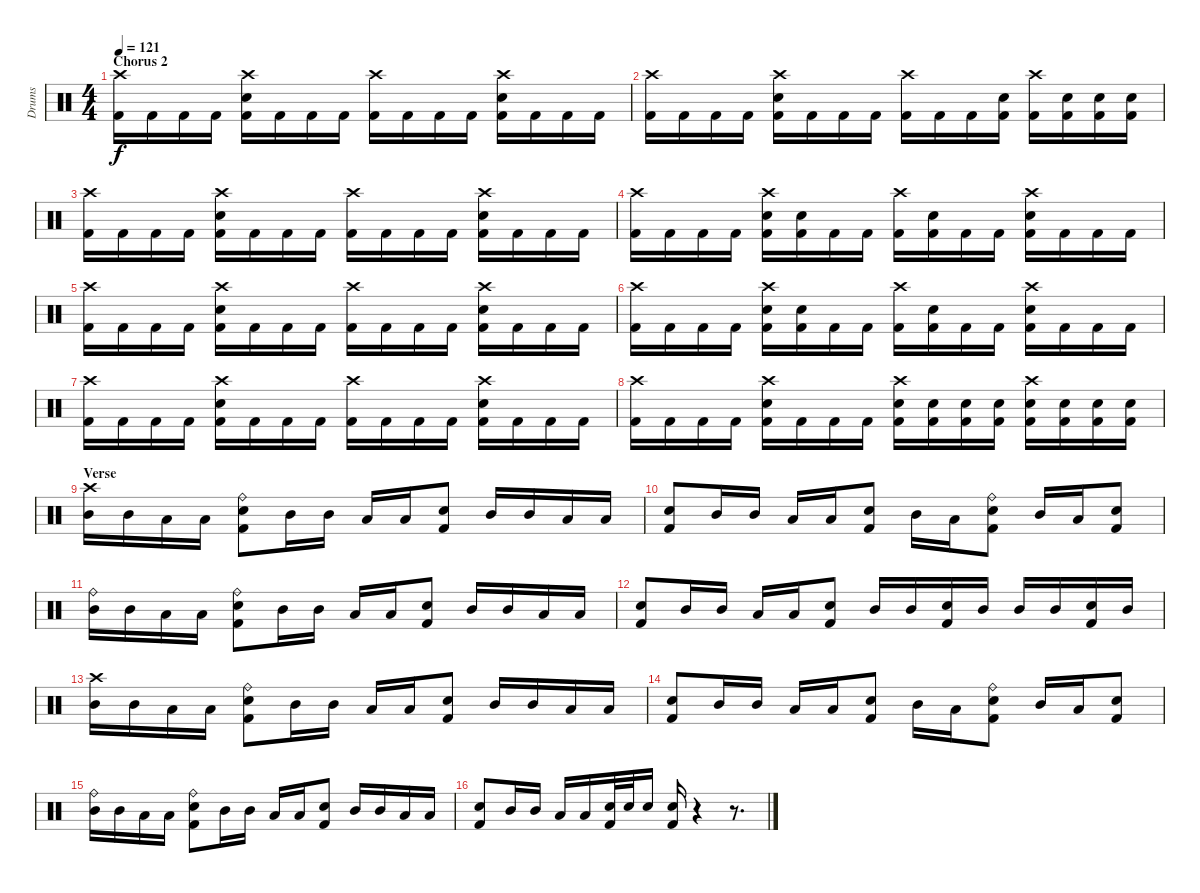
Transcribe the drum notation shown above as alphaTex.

\track ("Drums" "Drums") {instrument percussion}
\staff {score}
\articulation defaults
\ts (4 4)
\section ("" "Chorus 2")
\tempo 121
\clef neutral
\ks c
("Crash high (hit)" "Kick (hit) 2").16{dy f} "Kick (hit) 2".16 "Kick (hit) 2".16 "Kick (hit) 2".16 ("Crash high (hit)" "Snare (hit) 2" "Kick (hit) 2").16 "Kick (hit) 2".16 "Kick (hit) 2".16 "Kick (hit) 2".16 ("Crash high (hit)" "Kick (hit) 2").16 "Kick (hit) 2".16 "Kick (hit) 2".16 "Kick (hit) 2".16 ("Crash high (hit)" "Snare (hit) 2" "Kick (hit) 2").16 "Kick (hit) 2".16 "Kick (hit) 2".16 "Kick (hit) 2".16 |
("Crash high (hit)" "Kick (hit) 2").16 "Kick (hit) 2".16 "Kick (hit) 2".16 "Kick (hit) 2".16 ("Crash high (hit)" "Snare (hit) 2" "Kick (hit) 2").16 "Kick (hit) 2".16 "Kick (hit) 2".16 "Kick (hit) 2".16 ("Crash high (hit)" "Kick (hit) 2").16 "Kick (hit) 2".16 "Kick (hit) 2".16 ("Snare (hit) 2" "Kick (hit) 2").16 ("Crash high (hit)" "Kick (hit) 2").16 ("Snare (hit) 2" "Kick (hit) 2").16 ("Snare (hit) 2" "Kick (hit) 2").16 ("Snare (hit) 2" "Kick (hit) 2").16 |
("Crash high (hit)" "Kick (hit) 2").16 "Kick (hit) 2".16 "Kick (hit) 2".16 "Kick (hit) 2".16 ("Crash high (hit)" "Snare (hit) 2" "Kick (hit) 2").16 "Kick (hit) 2".16 "Kick (hit) 2".16 "Kick (hit) 2".16 ("Crash high (hit)" "Kick (hit) 2").16 "Kick (hit) 2".16 "Kick (hit) 2".16 "Kick (hit) 2".16 ("Crash high (hit)" "Snare (hit) 2" "Kick (hit) 2").16 "Kick (hit) 2".16 "Kick (hit) 2".16 "Kick (hit) 2".16 |
("Crash high (hit)" "Kick (hit) 2").16 "Kick (hit) 2".16 "Kick (hit) 2".16 "Kick (hit) 2".16 ("Crash high (hit)" "Snare (hit) 2" "Kick (hit) 2").16 ("Snare (hit) 2" "Kick (hit) 2").16 "Kick (hit) 2".16 "Kick (hit) 2".16 ("Crash high (hit)" "Kick (hit) 2").16 ("Snare (hit) 2" "Kick (hit) 2").16 "Kick (hit) 2".16 "Kick (hit) 2".16 ("Crash high (hit)" "Snare (hit) 2" "Kick (hit) 2").16 "Kick (hit) 2".16 "Kick (hit) 2".16 "Kick (hit) 2".16 |
("Crash high (hit)" "Kick (hit) 2").16 "Kick (hit) 2".16 "Kick (hit) 2".16 "Kick (hit) 2".16 ("Crash high (hit)" "Snare (hit) 2" "Kick (hit) 2").16 "Kick (hit) 2".16 "Kick (hit) 2".16 "Kick (hit) 2".16 ("Crash high (hit)" "Kick (hit) 2").16 "Kick (hit) 2".16 "Kick (hit) 2".16 "Kick (hit) 2".16 ("Crash high (hit)" "Snare (hit) 2" "Kick (hit) 2").16 "Kick (hit) 2".16 "Kick (hit) 2".16 "Kick (hit) 2".16 |
("Crash high (hit)" "Kick (hit) 2").16 "Kick (hit) 2".16 "Kick (hit) 2".16 "Kick (hit) 2".16 ("Crash high (hit)" "Snare (hit) 2" "Kick (hit) 2").16 ("Snare (hit) 2" "Kick (hit) 2").16 "Kick (hit) 2".16 "Kick (hit) 2".16 ("Crash high (hit)" "Kick (hit) 2").16 ("Snare (hit) 2" "Kick (hit) 2").16 "Kick (hit) 2".16 "Kick (hit) 2".16 ("Crash high (hit)" "Snare (hit) 2" "Kick (hit) 2").16 "Kick (hit) 2".16 "Kick (hit) 2".16 "Kick (hit) 2".16 |
("Crash high (hit)" "Kick (hit) 2").16 "Kick (hit) 2".16 "Kick (hit) 2".16 "Kick (hit) 2".16 ("Crash high (hit)" "Snare (hit) 2" "Kick (hit) 2").16 "Kick (hit) 2".16 "Kick (hit) 2".16 "Kick (hit) 2".16 ("Crash high (hit)" "Kick (hit) 2").16 "Kick (hit) 2".16 "Kick (hit) 2".16 "Kick (hit) 2".16 ("Crash high (hit)" "Snare (hit) 2" "Kick (hit) 2").16 "Kick (hit) 2".16 "Kick (hit) 2".16 "Kick (hit) 2".16 |
("Crash high (hit)" "Kick (hit) 2").16 "Kick (hit) 2".16 "Kick (hit) 2".16 "Kick (hit) 2".16 ("Crash high (hit)" "Snare (hit) 2" "Kick (hit) 2").16 "Kick (hit) 2".16 "Kick (hit) 2".16 "Kick (hit) 2".16 ("Crash high (hit)" "Snare (hit) 2" "Kick (hit) 2").16 ("Snare (hit) 2" "Kick (hit) 2").16 ("Snare (hit) 2" "Kick (hit) 2").16 ("Snare (hit) 2" "Kick (hit) 2").16 ("Crash high (hit)" "Snare (hit) 2" "Kick (hit) 2").16 ("Snare (hit) 2" "Kick (hit) 2").16 ("Snare (hit) 2" "Kick (hit) 2").16 ("Snare (hit) 2" "Kick (hit) 2").16 |
\section ("" "Verse")
("Crash high (hit)" "Mid Tom (hit)").16 "Mid Tom (hit)".16 "Low Tom (hit)".16 "Low Tom (hit)".16 ("Ride (bell)" "Snare (hit) 2" "Kick (hit) 2").8 "Mid Tom (hit)".16 "Mid Tom (hit)".16 "Low Tom (hit)".16 "Low Tom (hit)".16 ("Snare (hit) 2" "Kick (hit) 2").8 "Mid Tom (hit)".16 "Mid Tom (hit)".16 "Low Tom (hit)".16 "Low Tom (hit)".16 |
("Snare (hit) 2" "Kick (hit) 2").8 "Mid Tom (hit)".16 "Mid Tom (hit)".16 "Low Tom (hit)".16 "Low Tom (hit)".16 ("Snare (hit) 2" "Kick (hit) 2").8 "Mid Tom (hit)".16 "Low Tom (hit)".16 ("Ride (bell)" "Snare (hit) 2" "Kick (hit) 2").8 "Mid Tom (hit)".16 "Low Tom (hit)".16 ("Snare (hit) 2" "Kick (hit) 2").8 |
("Ride (bell)" "Mid Tom (hit)").16 "Mid Tom (hit)".16 "Low Tom (hit)".16 "Low Tom (hit)".16 ("Ride (bell)" "Snare (hit) 2" "Kick (hit) 2").8 "Mid Tom (hit)".16 "Mid Tom (hit)".16 "Low Tom (hit)".16 "Low Tom (hit)".16 ("Snare (hit) 2" "Kick (hit) 2").8 "Mid Tom (hit)".16 "Mid Tom (hit)".16 "Low Tom (hit)".16 "Low Tom (hit)".16 |
("Snare (hit) 2" "Kick (hit) 2").8 "Mid Tom (hit)".16 "Mid Tom (hit)".16 "Low Tom (hit)".16 "Low Tom (hit)".16 ("Snare (hit) 2" "Kick (hit) 2").8 "Mid Tom (hit)".16 "Mid Tom (hit)".16 ("Snare (hit) 2" "Kick (hit) 2").16 "Mid Tom (hit)".16 "Mid Tom (hit)".16 "Mid Tom (hit)".16 ("Snare (hit) 2" "Kick (hit) 2").16 "Mid Tom (hit)".16 |
("Crash high (hit)" "Mid Tom (hit)").16 "Mid Tom (hit)".16 "Low Tom (hit)".16 "Low Tom (hit)".16 ("Ride (bell)" "Snare (hit) 2" "Kick (hit) 2").8 "Mid Tom (hit)".16 "Mid Tom (hit)".16 "Low Tom (hit)".16 "Low Tom (hit)".16 ("Snare (hit) 2" "Kick (hit) 2").8 "Mid Tom (hit)".16 "Mid Tom (hit)".16 "Low Tom (hit)".16 "Low Tom (hit)".16 |
("Snare (hit) 2" "Kick (hit) 2").8 "Mid Tom (hit)".16 "Mid Tom (hit)".16 "Low Tom (hit)".16 "Low Tom (hit)".16 ("Snare (hit) 2" "Kick (hit) 2").8 "Mid Tom (hit)".16 "Low Tom (hit)".16 ("Ride (bell)" "Snare (hit) 2" "Kick (hit) 2").8 "Mid Tom (hit)".16 "Low Tom (hit)".16 ("Snare (hit) 2" "Kick (hit) 2").8 |
("Ride (bell)" "Mid Tom (hit)").16 "Mid Tom (hit)".16 "Low Tom (hit)".16 "Low Tom (hit)".16 ("Ride (bell)" "Snare (hit) 2" "Kick (hit) 2").8 "Mid Tom (hit)".16 "Mid Tom (hit)".16 "Low Tom (hit)".16 "Low Tom (hit)".16 ("Snare (hit) 2" "Kick (hit) 2").8 "Mid Tom (hit)".16 "Mid Tom (hit)".16 "Low Tom (hit)".16 "Low Tom (hit)".16 |
("Snare (hit) 2" "Kick (hit) 2").8 "Mid Tom (hit)".16 "Mid Tom (hit)".16 "Low Tom (hit)".16 "Low Tom (hit)".16 ("Snare (hit) 2" "Kick (hit) 2").32 "Snare (hit) 2".32 "Snare (hit) 2".16 ("Snare (hit) 2" "Kick (hit) 2").16 r.4 r.8{d}
